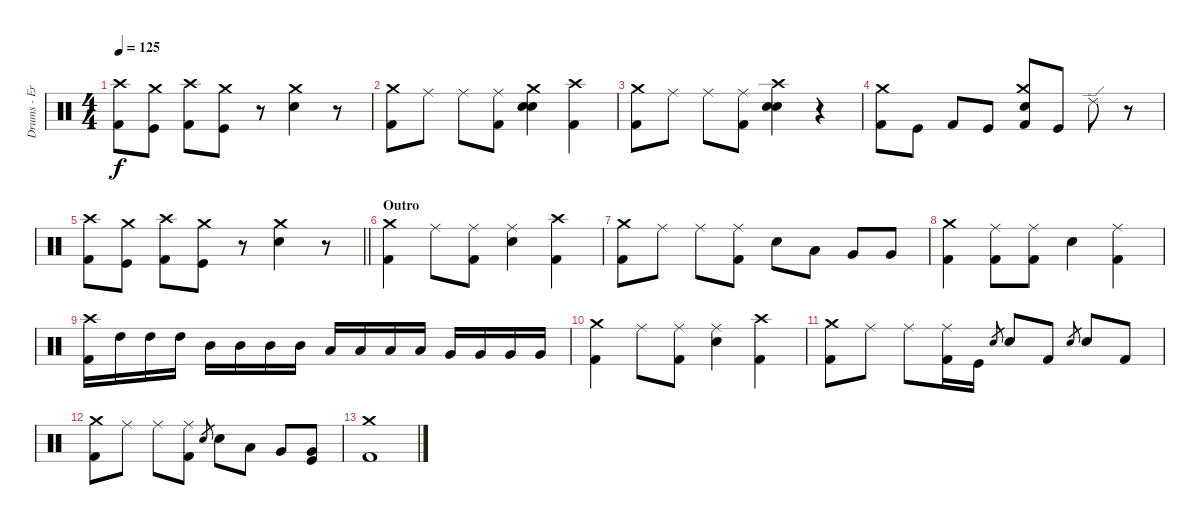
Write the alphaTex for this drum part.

\track ("Drums - Eric Young" "Drums - Er") {instrument percussion}
\staff {score}
\articulation defaults
\ts (4 4)
\tempo 125
\clef neutral
\ks c
("Crash high (hit)" "Kick (hit) 2").8{dy f} ("Crash medium (hit)" "Kick (hit)").8 ("Crash high (hit)" "Kick (hit) 2").8 ("Crash medium (hit)" "Kick (hit)").8 r.8 ("Crash medium (hit)" "Electric Snare (hit)").4 r.8 |
("Crash medium (hit)" "Kick (hit) 2").8 "Ride (middle)".8 "Ride (middle)".8 ("Ride (middle)" "Kick (hit) 2").8 ("Crash medium (hit)" "Snare (hit) 2" "Electric Snare (hit)").4 ("Crash high (hit)" "Kick (hit) 2").4 |
("Crash medium (hit)" "Kick (hit) 2").8 "Ride (middle)".8 "Ride (middle)".8 ("Ride (middle)" "Kick (hit) 2").8 ("Crash high (hit)" "Electric Snare (hit)" "Snare (hit) 2").4 r.4 |
("Crash medium (hit)" "Kick (hit) 2").8 "Kick (hit)".8 "Kick (hit) 2".8 "Kick (hit)".8 ("Crash medium (hit)" "Electric Snare (hit)" "Kick (hit) 2").8 "Kick (hit)".8 "Ride (edge) 2".8 r.8 |
\barLineRight lightlight
("Crash high (hit)" "Kick (hit) 2").8 ("Crash medium (hit)" "Kick (hit)").8 ("Crash high (hit)" "Kick (hit) 2").8 ("Crash medium (hit)" "Kick (hit)").8 r.8 ("Crash medium (hit)" "Electric Snare (hit)").4 r.8 |
\section ("" "Outro")
("Crash medium (hit)" "Kick (hit) 2").4 "Ride (middle)".8 ("Ride (middle)" "Kick (hit) 2").8 ("Ride (middle)" "Electric Snare (hit)").4 ("Crash high (hit)" "Kick (hit) 2").4 |
("Crash medium (hit)" "Kick (hit) 2").8 "Ride (middle)".8 "Ride (middle)".8 ("Ride (middle)" "Kick (hit) 2").8 "Electric Snare (hit)".8 "Low Tom (hit)".8 "Very Low Tom (hit)".8 "Very Low Tom (hit)".8 |
("Crash medium (hit)" "Kick (hit) 2").4 ("Ride (middle)" "Kick (hit) 2").8 ("Ride (middle)" "Kick (hit) 2").8 "Electric Snare (hit)".4 ("Ride (middle)" "Kick (hit) 2").4 |
("Crash high (hit)" "Kick (hit) 2").16 "High Tom (hit)".16 "High Tom (hit)".16 "High Tom (hit)".16 "Mid Tom (hit)".16 "Mid Tom (hit)".16 "Mid Tom (hit)".16 "Mid Tom (hit)".16 "Low Tom (hit)".16 "Low Tom (hit)".16 "Low Tom (hit)".16 "Low Tom (hit)".16 "Very Low Tom (hit)".16 "Very Low Tom (hit)".16 "Very Low Tom (hit)".16 "Very Low Tom (hit)".16 |
("Crash medium (hit)" "Kick (hit) 2").4 "Ride (middle)".8 ("Ride (middle)" "Kick (hit) 2").8 ("Ride (middle)" "Electric Snare (hit)").4 ("Crash high (hit)" "Kick (hit) 2").4 |
("Crash medium (hit)" "Kick (hit) 2").8 "Ride (middle)".8 "Ride (middle)".8 ("Ride (middle)" "Kick (hit) 2").16 "Kick (hit)".16 "Snare (hit) 2".8{gr} "Electric Snare (hit)".8 "Kick (hit) 2".8 "Snare (hit) 2".8{gr} "Electric Snare (hit)".8 "Kick (hit) 2".8 |
("Crash medium (hit)" "Kick (hit) 2").8 "Ride (middle)".8 "Ride (middle)".8 ("Ride (middle)" "Kick (hit) 2").8 "Snare (hit) 2".8{gr} "Electric Snare (hit)".8 "Low Tom (hit)".8 "Very Low Tom (hit)".8 ("Very Low Tom (hit)" "Kick (hit)").8 |
("Crash medium (hit)" "Kick (hit) 2").1
